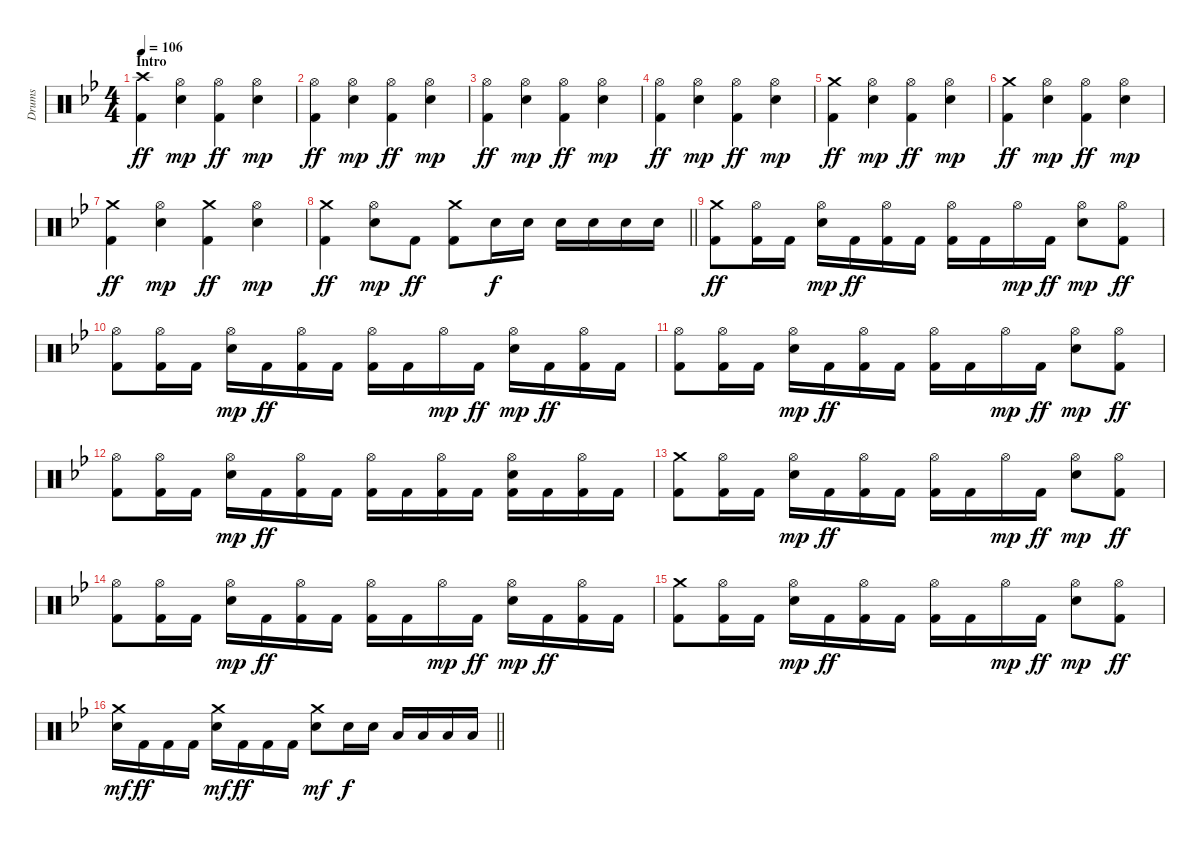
\track ("Drums" "Drums") {instrument percussion}
\staff {score}
\articulation defaults
\ts (4 4)
\section ("" "Intro")
\tempo 106
\clef neutral
\ks bb
("Crash high (hit)" "Kick (hit) 2").4{dy ff} ("Hi-Hat (open)" "Electric Snare (hit)").4{dy mp} ("Hi-Hat (open)" "Kick (hit) 2").4{dy ff} ("Hi-Hat (open)" "Electric Snare (hit)").4{dy mp} |
("Hi-Hat (open)" "Kick (hit) 2").4{dy ff} ("Hi-Hat (open)" "Electric Snare (hit)").4{dy mp} ("Hi-Hat (open)" "Kick (hit) 2").4{dy ff} ("Hi-Hat (open)" "Electric Snare (hit)").4{dy mp} |
("Hi-Hat (open)" "Kick (hit) 2").4{dy ff} ("Hi-Hat (open)" "Electric Snare (hit)").4{dy mp} ("Hi-Hat (open)" "Kick (hit) 2").4{dy ff} ("Hi-Hat (open)" "Electric Snare (hit)").4{dy mp} |
("Hi-Hat (open)" "Kick (hit) 2").4{dy ff} ("Hi-Hat (open)" "Electric Snare (hit)").4{dy mp} ("Hi-Hat (open)" "Kick (hit) 2").4{dy ff} ("Hi-Hat (open)" "Electric Snare (hit)").4{dy mp} |
("Crash medium (hit)" "Kick (hit) 2").4{dy ff} ("Hi-Hat (open)" "Electric Snare (hit)").4{dy mp} ("Hi-Hat (open)" "Kick (hit) 2").4{dy ff} ("Hi-Hat (open)" "Electric Snare (hit)").4{dy mp} |
("Crash medium (hit)" "Kick (hit) 2").4{dy ff} ("Hi-Hat (open)" "Electric Snare (hit)").4{dy mp} ("Hi-Hat (open)" "Kick (hit) 2").4{dy ff} ("Hi-Hat (open)" "Electric Snare (hit)").4{dy mp} |
("Crash medium (hit)" "Kick (hit) 2").4{dy ff} ("Hi-Hat (open)" "Electric Snare (hit)").4{dy mp} ("Crash medium (hit)" "Kick (hit) 2").4{dy ff} ("Hi-Hat (open)" "Electric Snare (hit)").4{dy mp} |
\barLineRight lightlight
("Crash medium (hit)" "Kick (hit) 2").4{dy ff} ("Hi-Hat (open)" "Electric Snare (hit)").8{dy mp} "Kick (hit) 2".8{dy ff} ("Crash medium (hit)" "Kick (hit) 2").8 "Electric Snare (hit)".16{dy f} "Electric Snare (hit)".16 "Electric Snare (hit)".16 "Electric Snare (hit)".16 "Electric Snare (hit)".16 "Electric Snare (hit)".16 |
\section ("" "")
("Crash medium (hit)" "Kick (hit) 2").8{dy ff} ("Hi-Hat (open)" "Kick (hit) 2").16 "Kick (hit) 2".16 ("Hi-Hat (open)" "Electric Snare (hit)").16{dy mp} "Kick (hit) 2".16{dy ff} ("Hi-Hat (open)" "Kick (hit) 2").16 "Kick (hit) 2".16 ("Hi-Hat (open)" "Kick (hit) 2").16 "Kick (hit) 2".16 "Hi-Hat (open)".16{dy mp} "Kick (hit) 2".16{dy ff} ("Hi-Hat (open)" "Electric Snare (hit)").8{dy mp} ("Hi-Hat (open)" "Kick (hit) 2").8{dy ff} |
("Hi-Hat (open)" "Kick (hit) 2").8 ("Hi-Hat (open)" "Kick (hit) 2").16 "Kick (hit) 2".16 ("Hi-Hat (open)" "Electric Snare (hit)").16{dy mp} "Kick (hit) 2".16{dy ff} ("Hi-Hat (open)" "Kick (hit) 2").16 "Kick (hit) 2".16 ("Hi-Hat (open)" "Kick (hit) 2").16 "Kick (hit) 2".16 "Hi-Hat (open)".16{dy mp} "Kick (hit) 2".16{dy ff} ("Hi-Hat (open)" "Electric Snare (hit)").16{dy mp} "Kick (hit) 2".16{dy ff} ("Hi-Hat (open)" "Kick (hit) 2").16 "Kick (hit) 2".16 |
("Hi-Hat (open)" "Kick (hit) 2").8 ("Hi-Hat (open)" "Kick (hit) 2").16 "Kick (hit) 2".16 ("Hi-Hat (open)" "Electric Snare (hit)").16{dy mp} "Kick (hit) 2".16{dy ff} ("Hi-Hat (open)" "Kick (hit) 2").16 "Kick (hit) 2".16 ("Hi-Hat (open)" "Kick (hit) 2").16 "Kick (hit) 2".16 "Hi-Hat (open)".16{dy mp} "Kick (hit) 2".16{dy ff} ("Hi-Hat (open)" "Electric Snare (hit)").8{dy mp} ("Hi-Hat (open)" "Kick (hit) 2").8{dy ff} |
("Hi-Hat (open)" "Kick (hit) 2").8 ("Hi-Hat (open)" "Kick (hit) 2").16 "Kick (hit) 2".16 ("Hi-Hat (open)" "Electric Snare (hit)").16{dy mp} "Kick (hit) 2".16{dy ff} ("Hi-Hat (open)" "Kick (hit) 2").16 "Kick (hit) 2".16 ("Hi-Hat (open)" "Kick (hit) 2").16 "Kick (hit) 2".16 ("Hi-Hat (open)" "Kick (hit) 2").16 "Kick (hit) 2".16 ("Hi-Hat (open)" "Electric Snare (hit)" "Kick (hit) 2").16 "Kick (hit) 2".16 ("Hi-Hat (open)" "Kick (hit) 2").16 "Kick (hit) 2".16 |
("Crash medium (hit)" "Kick (hit) 2").8 ("Hi-Hat (open)" "Kick (hit) 2").16 "Kick (hit) 2".16 ("Hi-Hat (open)" "Electric Snare (hit)").16{dy mp} "Kick (hit) 2".16{dy ff} ("Hi-Hat (open)" "Kick (hit) 2").16 "Kick (hit) 2".16 ("Hi-Hat (open)" "Kick (hit) 2").16 "Kick (hit) 2".16 "Hi-Hat (open)".16{dy mp} "Kick (hit) 2".16{dy ff} ("Hi-Hat (open)" "Electric Snare (hit)").8{dy mp} ("Hi-Hat (open)" "Kick (hit) 2").8{dy ff} |
("Hi-Hat (open)" "Kick (hit) 2").8 ("Hi-Hat (open)" "Kick (hit) 2").16 "Kick (hit) 2".16 ("Hi-Hat (open)" "Electric Snare (hit)").16{dy mp} "Kick (hit) 2".16{dy ff} ("Hi-Hat (open)" "Kick (hit) 2").16 "Kick (hit) 2".16 ("Hi-Hat (open)" "Kick (hit) 2").16 "Kick (hit) 2".16 "Hi-Hat (open)".16{dy mp} "Kick (hit) 2".16{dy ff} ("Hi-Hat (open)" "Electric Snare (hit)").16{dy mp} "Kick (hit) 2".16{dy ff} ("Hi-Hat (open)" "Kick (hit) 2").16 "Kick (hit) 2".16 |
("Crash medium (hit)" "Kick (hit) 2").8 ("Hi-Hat (open)" "Kick (hit) 2").16 "Kick (hit) 2".16 ("Hi-Hat (open)" "Electric Snare (hit)").16{dy mp} "Kick (hit) 2".16{dy ff} ("Hi-Hat (open)" "Kick (hit) 2").16 "Kick (hit) 2".16 ("Hi-Hat (open)" "Kick (hit) 2").16 "Kick (hit) 2".16 "Hi-Hat (open)".16{dy mp} "Kick (hit) 2".16{dy ff} ("Hi-Hat (open)" "Electric Snare (hit)").8{dy mp} ("Hi-Hat (open)" "Kick (hit) 2").8{dy ff} |
\barLineRight lightlight
("Crash medium (hit)" "Electric Snare (hit)").16{dy mf} "Kick (hit) 2".16{dy ff} "Kick (hit) 2".16 "Kick (hit) 2".16 ("Crash medium (hit)" "Electric Snare (hit)").16{dy mf} "Kick (hit) 2".16{dy ff} "Kick (hit) 2".16 "Kick (hit) 2".16 ("Crash medium (hit)" "Electric Snare (hit)").8{dy mf} "Electric Snare (hit)".16{dy f} "Electric Snare (hit)".16 "Low Tom (hit)".16 "Low Tom (hit)".16 "Low Tom (hit)".16 "Low Tom (hit)".16
